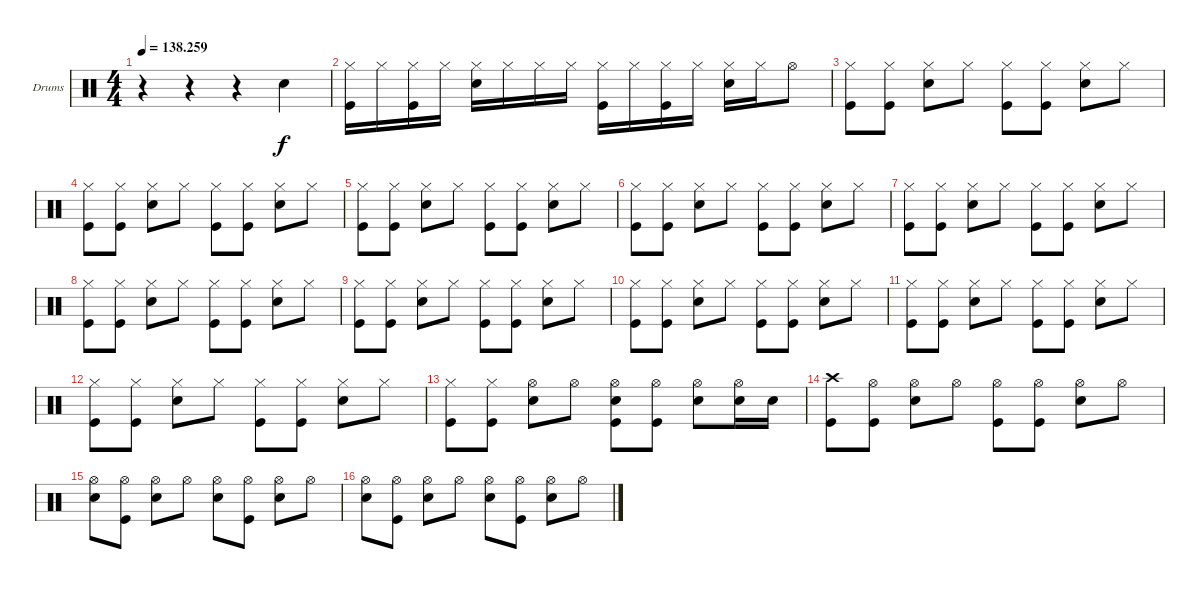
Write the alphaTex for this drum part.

\bracketExtendMode groupsimilarinstruments
\firstSystemTrackNameOrientation horizontal
\otherSystemsTrackNameOrientation horizontal
\track ("Drumkit" "Drums") {instrument percussion}
\staff {score}
\articulation defaults
\ts (4 4)
\tempo
138.259
\accidentals auto
\clef neutral
\ottava regular
\simile none
\ks c
r.4{dy f} r.4 r.4 "Snare (hit) 2".4 |
("Hi-Hat (closed)" "Kick (hit)").16 "Hi-Hat (closed)".16 ("Hi-Hat (closed)" "Kick (hit)").16 "Hi-Hat (closed)".16 ("Hi-Hat (closed)" "Snare (hit) 2").16 "Hi-Hat (closed)".16 "Hi-Hat (closed)".16 "Hi-Hat (closed)".16 ("Hi-Hat (closed)" "Kick (hit)").16 "Hi-Hat (closed)".16 ("Hi-Hat (closed)" "Kick (hit)").16 "Hi-Hat (closed)".16 ("Hi-Hat (closed)" "Snare (hit) 2").16 "Hi-Hat (closed)".16 "Hi-Hat (open)".8 |
("Hi-Hat (closed)" "Kick (hit)").8 ("Hi-Hat (closed)" "Kick (hit)").8 ("Hi-Hat (closed)" "Snare (hit) 2").8 "Hi-Hat (closed)".8 ("Hi-Hat (closed)" "Kick (hit)").8 ("Hi-Hat (closed)" "Kick (hit)").8 ("Hi-Hat (closed)" "Snare (hit) 2").8 "Hi-Hat (closed)".8 |
("Hi-Hat (closed)" "Kick (hit)").8 ("Hi-Hat (closed)" "Kick (hit)").8 ("Hi-Hat (closed)" "Snare (hit) 2").8 "Hi-Hat (closed)".8 ("Hi-Hat (closed)" "Kick (hit)").8 ("Hi-Hat (closed)" "Kick (hit)").8 ("Hi-Hat (closed)" "Snare (hit) 2").8 "Hi-Hat (closed)".8 |
("Hi-Hat (closed)" "Kick (hit)").8 ("Hi-Hat (closed)" "Kick (hit)").8 ("Hi-Hat (closed)" "Snare (hit) 2").8 "Hi-Hat (closed)".8 ("Hi-Hat (closed)" "Kick (hit)").8 ("Hi-Hat (closed)" "Kick (hit)").8 ("Hi-Hat (closed)" "Snare (hit) 2").8 "Hi-Hat (closed)".8 |
("Hi-Hat (closed)" "Kick (hit)").8 ("Hi-Hat (closed)" "Kick (hit)").8 ("Hi-Hat (closed)" "Snare (hit) 2").8 "Hi-Hat (closed)".8 ("Hi-Hat (closed)" "Kick (hit)").8 ("Hi-Hat (closed)" "Kick (hit)").8 ("Hi-Hat (closed)" "Snare (hit) 2").8 "Hi-Hat (closed)".8 |
("Hi-Hat (closed)" "Kick (hit)").8 ("Hi-Hat (closed)" "Kick (hit)").8 ("Hi-Hat (closed)" "Snare (hit) 2").8 "Hi-Hat (closed)".8 ("Hi-Hat (closed)" "Kick (hit)").8 ("Hi-Hat (closed)" "Kick (hit)").8 ("Hi-Hat (closed)" "Snare (hit) 2").8 "Hi-Hat (closed)".8 |
("Hi-Hat (closed)" "Kick (hit)").8 ("Hi-Hat (closed)" "Kick (hit)").8 ("Hi-Hat (closed)" "Snare (hit) 2").8 "Hi-Hat (closed)".8 ("Hi-Hat (closed)" "Kick (hit)").8 ("Hi-Hat (closed)" "Kick (hit)").8 ("Hi-Hat (closed)" "Snare (hit) 2").8 "Hi-Hat (closed)".8 |
("Hi-Hat (closed)" "Kick (hit)").8 ("Hi-Hat (closed)" "Kick (hit)").8 ("Hi-Hat (closed)" "Snare (hit) 2").8 "Hi-Hat (closed)".8 ("Hi-Hat (closed)" "Kick (hit)").8 ("Hi-Hat (closed)" "Kick (hit)").8 ("Hi-Hat (closed)" "Snare (hit) 2").8 "Hi-Hat (closed)".8 |
("Hi-Hat (closed)" "Kick (hit)").8 ("Hi-Hat (closed)" "Kick (hit)").8 ("Hi-Hat (closed)" "Snare (hit) 2").8 "Hi-Hat (closed)".8 ("Hi-Hat (closed)" "Kick (hit)").8 ("Hi-Hat (closed)" "Kick (hit)").8 ("Hi-Hat (closed)" "Snare (hit) 2").8 "Hi-Hat (closed)".8 |
("Hi-Hat (closed)" "Kick (hit)").8 ("Hi-Hat (closed)" "Kick (hit)").8 ("Hi-Hat (closed)" "Snare (hit) 2").8 "Hi-Hat (closed)".8 ("Hi-Hat (closed)" "Kick (hit)").8 ("Hi-Hat (closed)" "Kick (hit)").8 ("Hi-Hat (closed)" "Snare (hit) 2").8 "Hi-Hat (closed)".8 |
("Hi-Hat (closed)" "Kick (hit)").8 ("Hi-Hat (closed)" "Kick (hit)").8 ("Hi-Hat (closed)" "Snare (hit) 2").8 "Hi-Hat (closed)".8 ("Hi-Hat (closed)" "Kick (hit)").8 ("Hi-Hat (closed)" "Kick (hit)").8 ("Hi-Hat (closed)" "Snare (hit) 2").8 "Hi-Hat (closed)".8 |
("Hi-Hat (closed)" "Kick (hit)").8 ("Hi-Hat (closed)" "Kick (hit)").8 ("Hi-Hat (open)" "Snare (hit) 2").8 "Hi-Hat (open)".8 ("Hi-Hat (open)" "Snare (hit) 2" "Kick (hit)").8 ("Hi-Hat (open)" "Kick (hit)").8 ("Hi-Hat (open)" "Snare (hit) 2").8 ("Hi-Hat (open)" "Snare (hit) 2").16 "Snare (hit) 2".16 |
("Crash high (hit)" "Kick (hit)").8 ("Hi-Hat (open)" "Kick (hit)").8 ("Hi-Hat (open)" "Snare (hit) 2").8 "Hi-Hat (open)".8 ("Hi-Hat (open)" "Kick (hit)").8 ("Hi-Hat (open)" "Kick (hit)").8 ("Hi-Hat (open)" "Snare (hit) 2").8 "Hi-Hat (open)".8 |
("Hi-Hat (open)" "Snare (hit) 2").8 ("Hi-Hat (open)" "Kick (hit)").8 ("Hi-Hat (open)" "Snare (hit) 2").8 "Hi-Hat (open)".8 ("Hi-Hat (open)" "Snare (hit) 2").8 ("Hi-Hat (open)" "Kick (hit)").8 ("Hi-Hat (open)" "Snare (hit) 2").8 "Hi-Hat (open)".8 |
("Hi-Hat (open)" "Snare (hit) 2").8 ("Hi-Hat (open)" "Kick (hit)").8 ("Hi-Hat (open)" "Snare (hit) 2").8 "Hi-Hat (open)".8 ("Hi-Hat (open)" "Snare (hit) 2").8 ("Hi-Hat (open)" "Kick (hit)").8 ("Hi-Hat (open)" "Snare (hit) 2").8 "Hi-Hat (open)".8
